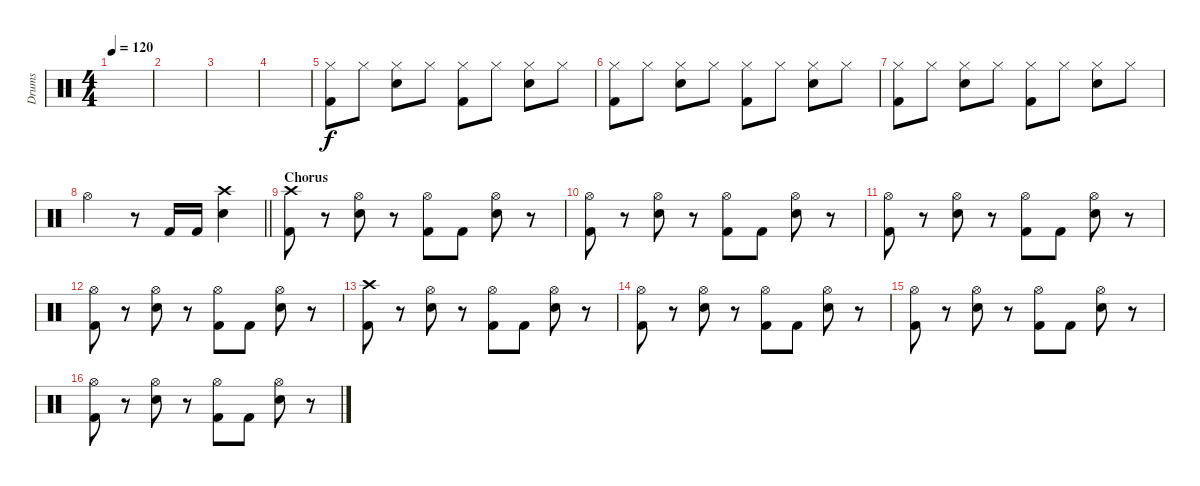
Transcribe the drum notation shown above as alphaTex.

\track ("Drums" "Drums") {instrument percussion}
\staff {score}
\articulation defaults
\ts (4 4)
\tempo 120
\clef neutral
\ks c
|
|
|
|
("Hi-Hat (closed)" "Kick (hit) 2").8 "Hi-Hat (closed)".8 ("Snare (hit) 2" "Hi-Hat (closed)").8 "Hi-Hat (closed)".8 ("Hi-Hat (closed)" "Kick (hit) 2").8 "Hi-Hat (closed)".8 ("Snare (hit) 2" "Hi-Hat (closed)").8 "Hi-Hat (closed)".8 |
("Hi-Hat (closed)" "Kick (hit) 2").8 "Hi-Hat (closed)".8 ("Snare (hit) 2" "Hi-Hat (closed)").8 "Hi-Hat (closed)".8 ("Hi-Hat (closed)" "Kick (hit) 2").8 "Hi-Hat (closed)".8 ("Snare (hit) 2" "Hi-Hat (closed)").8 "Hi-Hat (closed)".8 |
("Hi-Hat (closed)" "Kick (hit) 2").8 "Hi-Hat (closed)".8 ("Snare (hit) 2" "Hi-Hat (closed)").8 "Hi-Hat (closed)".8 ("Hi-Hat (closed)" "Kick (hit) 2").8 "Hi-Hat (closed)".8 ("Snare (hit) 2" "Hi-Hat (closed)").8 "Hi-Hat (closed)".8 |
\barLineRight lightlight "Hi-Hat (open)".2
r.8 "Kick (hit) 2".16 "Kick (hit) 2".16 ("Crash high (hit)" "Snare (hit) 2").4 |
\section ("" "Chorus")
("Crash high (hit)" "Kick (hit) 2").8 r.8 ("Snare (hit) 2" "Hi-Hat (open)").8 r.8 ("Hi-Hat (open)" "Kick (hit) 2").8 "Kick (hit) 2".8 ("Snare (hit) 2" "Hi-Hat (open)").8 r.8 |
("Hi-Hat (open)" "Kick (hit) 2").8 r.8 ("Snare (hit) 2" "Hi-Hat (open)").8 r.8 ("Hi-Hat (open)" "Kick (hit) 2").8 "Kick (hit) 2".8 ("Snare (hit) 2" "Hi-Hat (open)").8 r.8 |
("Hi-Hat (open)" "Kick (hit) 2").8 r.8 ("Snare (hit) 2" "Hi-Hat (open)").8 r.8 ("Hi-Hat (open)" "Kick (hit) 2").8 "Kick (hit) 2".8 ("Snare (hit) 2" "Hi-Hat (open)").8 r.8 |
("Hi-Hat (open)" "Kick (hit) 2").8 r.8 ("Snare (hit) 2" "Hi-Hat (open)").8 r.8 ("Hi-Hat (open)" "Kick (hit) 2").8 "Kick (hit) 2".8 ("Snare (hit) 2" "Hi-Hat (open)").8 r.8 |
("Crash high (hit)" "Kick (hit) 2").8 r.8 ("Snare (hit) 2" "Hi-Hat (open)").8 r.8 ("Hi-Hat (open)" "Kick (hit) 2").8 "Kick (hit) 2".8 ("Snare (hit) 2" "Hi-Hat (open)").8 r.8 |
("Hi-Hat (open)" "Kick (hit) 2").8 r.8 ("Snare (hit) 2" "Hi-Hat (open)").8 r.8 ("Hi-Hat (open)" "Kick (hit) 2").8 "Kick (hit) 2".8 ("Snare (hit) 2" "Hi-Hat (open)").8 r.8 |
("Hi-Hat (open)" "Kick (hit) 2").8 r.8 ("Snare (hit) 2" "Hi-Hat (open)").8 r.8 ("Hi-Hat (open)" "Kick (hit) 2").8 "Kick (hit) 2".8 ("Snare (hit) 2" "Hi-Hat (open)").8 r.8 |
("Hi-Hat (open)" "Kick (hit) 2").8 r.8 ("Snare (hit) 2" "Hi-Hat (open)").8 r.8 ("Hi-Hat (open)" "Kick (hit) 2").8 "Kick (hit) 2".8 ("Snare (hit) 2" "Hi-Hat (open)").8 r.8
